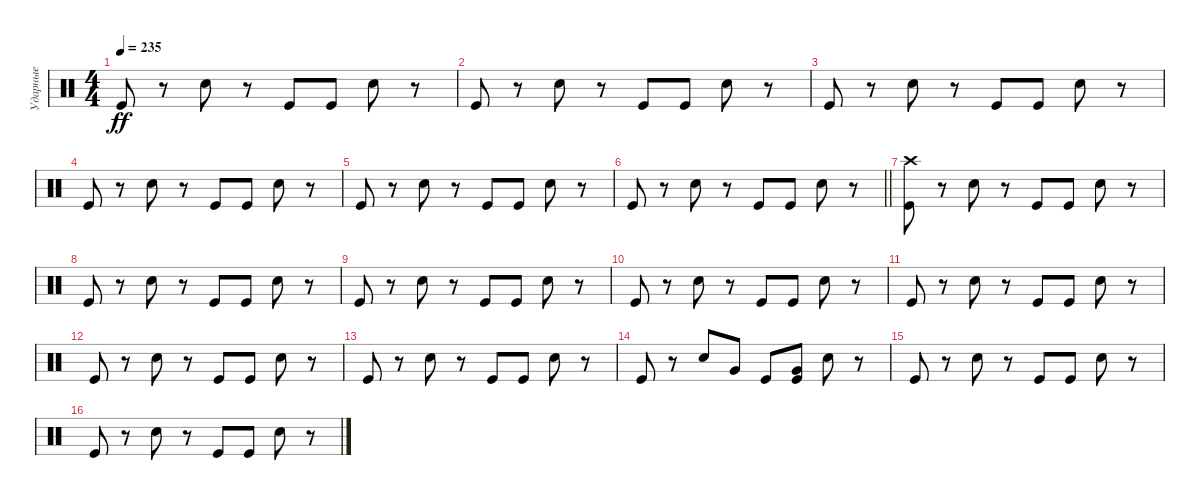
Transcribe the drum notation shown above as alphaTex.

\track ("Ударные" "Ударные") {instrument percussion}
\staff {score}
\articulation defaults
\ts (4 4)
\tempo 235
\clef neutral
\ks c "Kick (hit)".8{dy ff}
r.8 "Snare (hit) 2".8 r.8 "Kick (hit)".8 "Kick (hit)".8 "Snare (hit) 2".8 r.8 |
"Kick (hit)".8 r.8 "Snare (hit) 2".8 r.8 "Kick (hit)".8 "Kick (hit)".8 "Snare (hit) 2".8 r.8 |
"Kick (hit)".8 r.8 "Snare (hit) 2".8 r.8 "Kick (hit)".8 "Kick (hit)".8 "Snare (hit) 2".8 r.8 |
"Kick (hit)".8 r.8 "Snare (hit) 2".8 r.8 "Kick (hit)".8 "Kick (hit)".8 "Snare (hit) 2".8 r.8 |
"Kick (hit)".8 r.8 "Snare (hit) 2".8 r.8 "Kick (hit)".8 "Kick (hit)".8 "Snare (hit) 2".8 r.8 |
\barLineRight lightlight "Kick (hit)".8
r.8 "Snare (hit) 2".8 r.8 "Kick (hit)".8 "Kick (hit)".8 "Snare (hit) 2".8 r.8 |
("Kick (hit)" "Crash high (hit)").8 r.8 "Snare (hit) 2".8 r.8 "Kick (hit)".8 "Kick (hit)".8 "Snare (hit) 2".8 r.8 |
"Kick (hit)".8 r.8 "Snare (hit) 2".8 r.8 "Kick (hit)".8 "Kick (hit)".8 "Snare (hit) 2".8 r.8 |
"Kick (hit)".8 r.8 "Snare (hit) 2".8 r.8 "Kick (hit)".8 "Kick (hit)".8 "Snare (hit) 2".8 r.8 |
"Kick (hit)".8 r.8 "Snare (hit) 2".8 r.8 "Kick (hit)".8 "Kick (hit)".8 "Snare (hit) 2".8 r.8 |
"Kick (hit)".8 r.8 "Snare (hit) 2".8 r.8 "Kick (hit)".8 "Kick (hit)".8 "Snare (hit) 2".8 r.8 |
"Kick (hit)".8 r.8 "Snare (hit) 2".8 r.8 "Kick (hit)".8 "Kick (hit)".8 "Snare (hit) 2".8 r.8 |
"Kick (hit)".8 r.8 "Snare (hit) 2".8 r.8 "Kick (hit)".8 "Kick (hit)".8 "Snare (hit) 2".8 r.8 |
"Kick (hit)".8 r.8 "Snare (hit) 2".8 "Very Low Tom (hit)".8 "Kick (hit)".8 ("Kick (hit)" "Very Low Tom (hit)").8 "Snare (hit) 2".8 r.8 |
"Kick (hit)".8 r.8 "Snare (hit) 2".8 r.8 "Kick (hit)".8 "Kick (hit)".8 "Snare (hit) 2".8 r.8 |
"Kick (hit)".8 r.8 "Snare (hit) 2".8 r.8 "Kick (hit)".8 "Kick (hit)".8 "Snare (hit) 2".8 r.8
